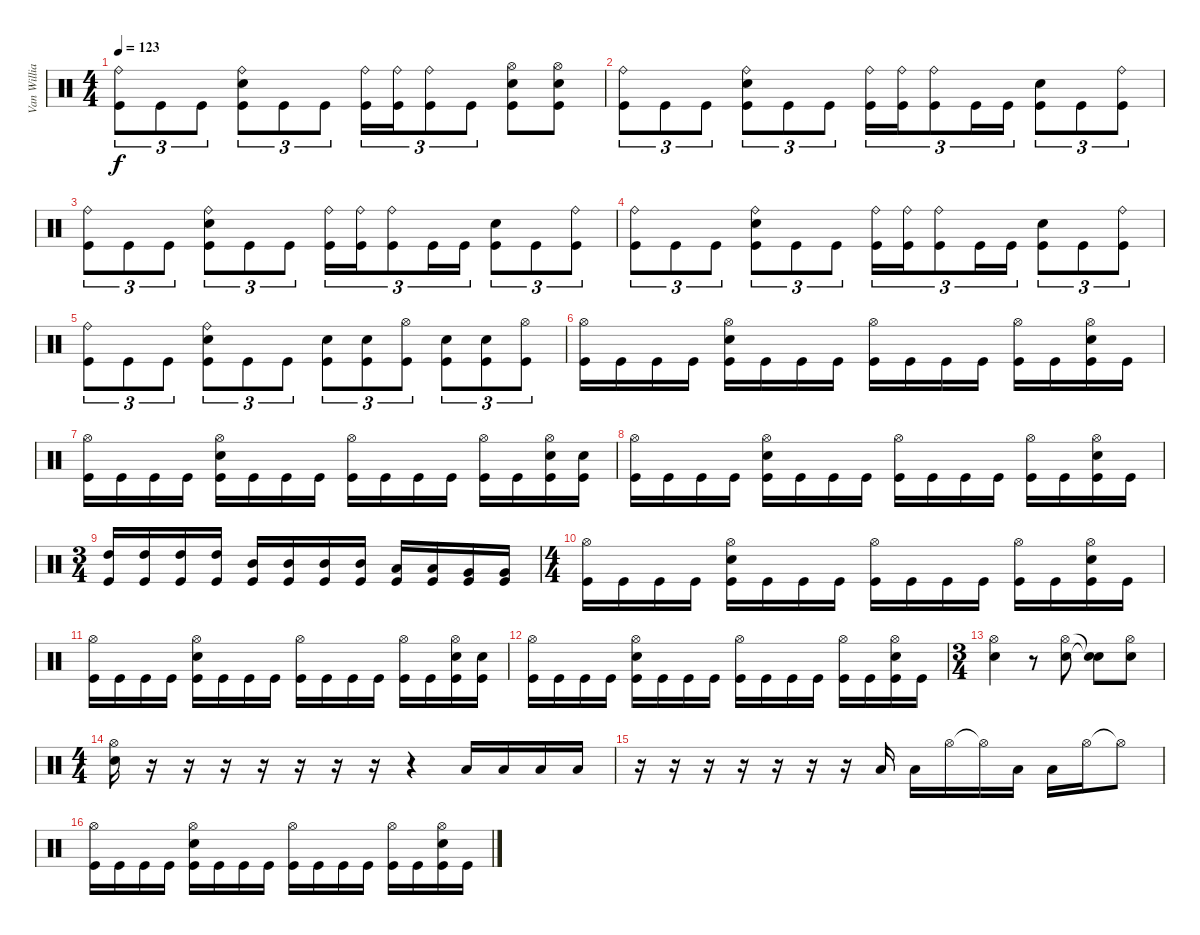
\track ("Van Williams" "Van Willia") {instrument percussion}
\staff {score}
\articulation defaults
\ts (4 4)
\tempo 123
\clef neutral
\ks c
("Ride (bell)" "Kick (hit)").8{tu (3 2) dy f} "Kick (hit)".8{tu (3 2)} "Kick (hit)".8{tu (3 2)} ("Ride (bell)" "Electric Snare (hit)" "Kick (hit)").8{tu (3 2)} "Kick (hit)".8{tu (3 2)} "Kick (hit)".8{tu (3 2)} ("Ride (bell)" "Kick (hit)").16{tu (3 2)} ("Ride (bell)" "Kick (hit)").16{tu (3 2)} ("Ride (bell)" "Kick (hit)").8{tu (3 2)} "Kick (hit)".8{tu (3 2)} ("Hi-Hat (open)" "Electric Snare (hit)" "Kick (hit)").8 ("Hi-Hat (open)" "Electric Snare (hit)" "Kick (hit)").8 |
("Ride (bell)" "Kick (hit)").8{tu (3 2)} "Kick (hit)".8{tu (3 2)} "Kick (hit)".8{tu (3 2)} ("Ride (bell)" "Electric Snare (hit)" "Kick (hit)").8{tu (3 2)} "Kick (hit)".8{tu (3 2)} "Kick (hit)".8{tu (3 2)} ("Ride (bell)" "Kick (hit)").16{tu (3 2)} ("Ride (bell)" "Kick (hit)").16{tu (3 2)} ("Ride (bell)" "Kick (hit)").8{tu (3 2)} "Kick (hit)".16{tu (3 2)} "Kick (hit)".16{tu (3 2)} ("Electric Snare (hit)" "Kick (hit)").8{tu (3 2)} "Kick (hit)".8{tu (3 2)} ("Ride (bell)" "Kick (hit)").8{tu (3 2)} |
("Ride (bell)" "Kick (hit)").8{tu (3 2)} "Kick (hit)".8{tu (3 2)} "Kick (hit)".8{tu (3 2)} ("Ride (bell)" "Electric Snare (hit)" "Kick (hit)").8{tu (3 2)} "Kick (hit)".8{tu (3 2)} "Kick (hit)".8{tu (3 2)} ("Ride (bell)" "Kick (hit)").16{tu (3 2)} ("Ride (bell)" "Kick (hit)").16{tu (3 2)} ("Ride (bell)" "Kick (hit)").8{tu (3 2)} "Kick (hit)".16{tu (3 2)} "Kick (hit)".16{tu (3 2)} ("Electric Snare (hit)" "Kick (hit)").8{tu (3 2)} "Kick (hit)".8{tu (3 2)} ("Ride (bell)" "Kick (hit)").8{tu (3 2)} |
("Ride (bell)" "Kick (hit)").8{tu (3 2)} "Kick (hit)".8{tu (3 2)} "Kick (hit)".8{tu (3 2)} ("Ride (bell)" "Electric Snare (hit)" "Kick (hit)").8{tu (3 2)} "Kick (hit)".8{tu (3 2)} "Kick (hit)".8{tu (3 2)} ("Ride (bell)" "Kick (hit)").16{tu (3 2)} ("Ride (bell)" "Kick (hit)").16{tu (3 2)} ("Ride (bell)" "Kick (hit)").8{tu (3 2)} "Kick (hit)".16{tu (3 2)} "Kick (hit)".16{tu (3 2)} ("Electric Snare (hit)" "Kick (hit)").8{tu (3 2)} "Kick (hit)".8{tu (3 2)} ("Ride (bell)" "Kick (hit)").8{tu (3 2)} |
("Ride (bell)" "Kick (hit)").8{tu (3 2)} "Kick (hit)".8{tu (3 2)} "Kick (hit)".8{tu (3 2)} ("Ride (bell)" "Electric Snare (hit)" "Kick (hit)").8{tu (3 2)} "Kick (hit)".8{tu (3 2)} "Kick (hit)".8{tu (3 2)} ("Electric Snare (hit)" "Kick (hit)").8{tu (3 2)} ("Electric Snare (hit)" "Kick (hit)").8{tu (3 2)} ("Hi-Hat (open)" "Kick (hit)").8{tu (3 2)} ("Electric Snare (hit)" "Kick (hit)").8{tu (3 2)} ("Electric Snare (hit)" "Kick (hit)").8{tu (3 2)} ("Hi-Hat (open)" "Kick (hit)").8{tu (3 2)} |
("Hi-Hat (open)" "Kick (hit)").16 "Kick (hit)".16 "Kick (hit)".16 "Kick (hit)".16 ("Hi-Hat (open)" "Electric Snare (hit)" "Kick (hit)").16 "Kick (hit)".16 "Kick (hit)".16 "Kick (hit)".16 ("Hi-Hat (open)" "Kick (hit)").16 "Kick (hit)".16 "Kick (hit)".16 "Kick (hit)".16 ("Hi-Hat (open)" "Kick (hit)").16 "Kick (hit)".16 ("Hi-Hat (open)" "Electric Snare (hit)" "Kick (hit)").16 "Kick (hit)".16 |
("Hi-Hat (open)" "Kick (hit)").16 "Kick (hit)".16 "Kick (hit)".16 "Kick (hit)".16 ("Hi-Hat (open)" "Electric Snare (hit)" "Kick (hit)").16 "Kick (hit)".16 "Kick (hit)".16 "Kick (hit)".16 ("Hi-Hat (open)" "Kick (hit)").16 "Kick (hit)".16 "Kick (hit)".16 "Kick (hit)".16 ("Hi-Hat (open)" "Kick (hit)").16 "Kick (hit)".16 ("Hi-Hat (open)" "Electric Snare (hit)" "Kick (hit)").16 ("Electric Snare (hit)" "Kick (hit)").16 |
("Hi-Hat (open)" "Kick (hit)").16 "Kick (hit)".16 "Kick (hit)".16 "Kick (hit)".16 ("Hi-Hat (open)" "Electric Snare (hit)" "Kick (hit)").16 "Kick (hit)".16 "Kick (hit)".16 "Kick (hit)".16 ("Hi-Hat (open)" "Kick (hit)").16 "Kick (hit)".16 "Kick (hit)".16 "Kick (hit)".16 ("Hi-Hat (open)" "Kick (hit)").16 "Kick (hit)".16 ("Hi-Hat (open)" "Electric Snare (hit)" "Kick (hit)").16 "Kick (hit)".16 |
\ts (3 4)
("High Tom (hit)" "Kick (hit)").16 ("High Tom (hit)" "Kick (hit)").16 ("High Tom (hit)" "Kick (hit)").16 ("High Tom (hit)" "Kick (hit)").16 ("Mid Tom (hit)" "Kick (hit)").16 ("Mid Tom (hit)" "Kick (hit)").16 ("Mid Tom (hit)" "Kick (hit)").16 ("Mid Tom (hit)" "Kick (hit)").16 ("Low Tom (hit)" "Kick (hit)").16 ("Low Tom (hit)" "Kick (hit)").16 ("Very Low Tom (hit)" "Kick (hit)").16 ("Very Low Tom (hit)" "Kick (hit)").16 |
\ts (4 4)
("Hi-Hat (open)" "Kick (hit)").16 "Kick (hit)".16 "Kick (hit)".16 "Kick (hit)".16 ("Hi-Hat (open)" "Electric Snare (hit)" "Kick (hit)").16 "Kick (hit)".16 "Kick (hit)".16 "Kick (hit)".16 ("Hi-Hat (open)" "Kick (hit)").16 "Kick (hit)".16 "Kick (hit)".16 "Kick (hit)".16 ("Hi-Hat (open)" "Kick (hit)").16 "Kick (hit)".16 ("Hi-Hat (open)" "Electric Snare (hit)" "Kick (hit)").16 "Kick (hit)".16 |
("Hi-Hat (open)" "Kick (hit)").16 "Kick (hit)".16 "Kick (hit)".16 "Kick (hit)".16 ("Hi-Hat (open)" "Electric Snare (hit)" "Kick (hit)").16 "Kick (hit)".16 "Kick (hit)".16 "Kick (hit)".16 ("Hi-Hat (open)" "Kick (hit)").16 "Kick (hit)".16 "Kick (hit)".16 "Kick (hit)".16 ("Hi-Hat (open)" "Kick (hit)").16 "Kick (hit)".16 ("Hi-Hat (open)" "Electric Snare (hit)" "Kick (hit)").16 ("Electric Snare (hit)" "Kick (hit)").16 |
("Hi-Hat (open)" "Kick (hit)").16 "Kick (hit)".16 "Kick (hit)".16 "Kick (hit)".16 ("Hi-Hat (open)" "Electric Snare (hit)" "Kick (hit)").16 "Kick (hit)".16 "Kick (hit)".16 "Kick (hit)".16 ("Hi-Hat (open)" "Kick (hit)").16 "Kick (hit)".16 "Kick (hit)".16 "Kick (hit)".16 ("Hi-Hat (open)" "Kick (hit)").16 "Kick (hit)".16 ("Hi-Hat (open)" "Electric Snare (hit)" "Kick (hit)").16 "Kick (hit)".16 |
\ts (3 4)
("Hi-Hat (open)" "Electric Snare (hit)").4 r.8 ("Hi-Hat (open)" "Electric Snare (hit)").8 ("Snare (hit)"{t} "Snare (hit)"{t}).8 ("Hi-Hat (open)" "Electric Snare (hit)").8 |
\ts (4 4)
("Hi-Hat (open)" "Electric Snare (hit)").16 r.16 r.16 r.16 r.16 r.16 r.16 r.16 r.4 "Low Floor Tom (hit)".16 "Low Floor Tom (hit)".16 "Low Floor Tom (hit)".16 "Low Floor Tom (hit)".16 |
r.16 r.16 r.16 r.16 r.16 r.16 r.16 "Low Floor Tom (hit)".16 "Low Floor Tom (hit)".16 "Hi-Hat (open)".16 "Hi-Hat (open)"{t}.16 "Low Floor Tom (hit)".16 "Low Floor Tom (hit)".16 "Hi-Hat (open)".16 "Hi-Hat (open)"{t}.8 |
("Hi-Hat (open)" "Kick (hit)").16 "Kick (hit)".16 "Kick (hit)".16 "Kick (hit)".16 ("Hi-Hat (open)" "Electric Snare (hit)" "Kick (hit)").16 "Kick (hit)".16 "Kick (hit)".16 "Kick (hit)".16 ("Hi-Hat (open)" "Kick (hit)").16 "Kick (hit)".16 "Kick (hit)".16 "Kick (hit)".16 ("Hi-Hat (open)" "Kick (hit)").16 "Kick (hit)".16 ("Hi-Hat (open)" "Electric Snare (hit)" "Kick (hit)").16 "Kick (hit)".16
